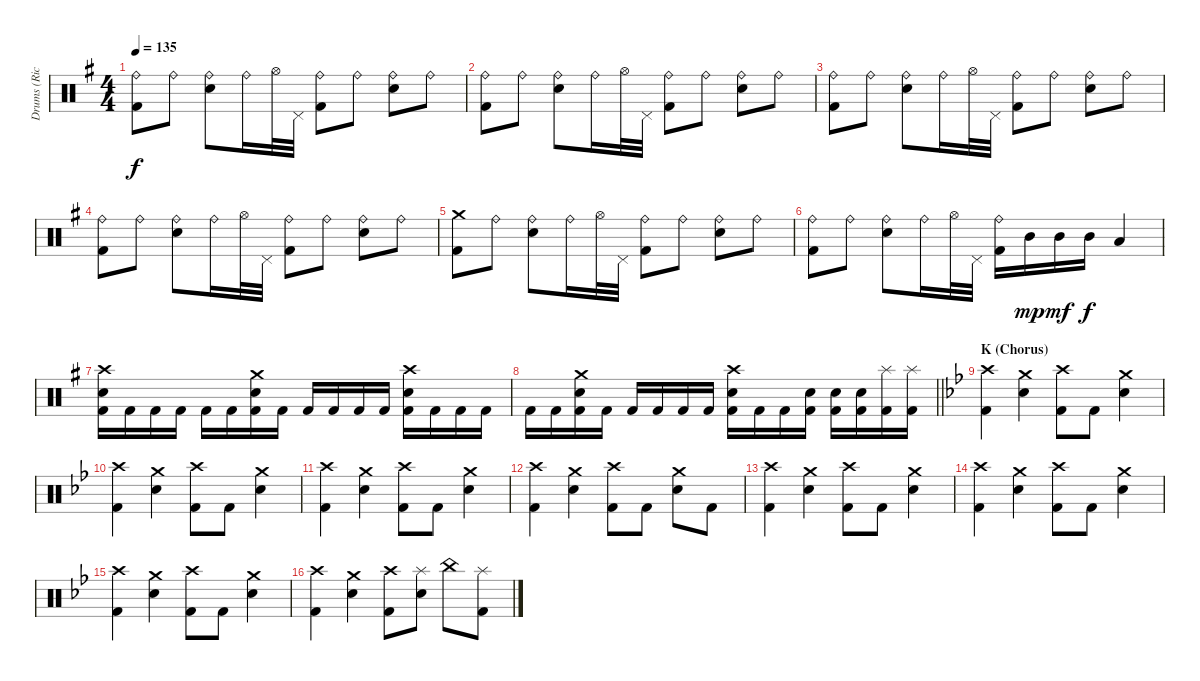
\track ("Drums (Richard Evensand)" "Drums (Ric") {instrument percussion}
\staff {score}
\articulation defaults
\ts (4 4)
\tempo 135
\clef neutral
\ks eminor
("Ride (bell)" "Kick (hit) 2").8{dy f} "Ride (bell)".8 ("Ride (bell)" "Electric Snare (hit)").8 "Ride (bell)".16 "Hi-Hat (open)".32 "Pedal Hi-Hat (hit)".32 ("Ride (bell)" "Kick (hit) 2").8 "Ride (bell)".8 ("Ride (bell)" "Electric Snare (hit)").8 "Ride (bell)".8 |
("Ride (bell)" "Kick (hit) 2").8 "Ride (bell)".8 ("Ride (bell)" "Electric Snare (hit)").8 "Ride (bell)".16 "Hi-Hat (open)".32 "Pedal Hi-Hat (hit)".32 ("Ride (bell)" "Kick (hit) 2").8 "Ride (bell)".8 ("Ride (bell)" "Electric Snare (hit)").8 "Ride (bell)".8 |
("Ride (bell)" "Kick (hit) 2").8 "Ride (bell)".8 ("Ride (bell)" "Electric Snare (hit)").8 "Ride (bell)".16 "Hi-Hat (open)".32 "Pedal Hi-Hat (hit)".32 ("Ride (bell)" "Kick (hit) 2").8 "Ride (bell)".8 ("Ride (bell)" "Electric Snare (hit)").8 "Ride (bell)".8 |
("Ride (bell)" "Kick (hit) 2").8 "Ride (bell)".8 ("Ride (bell)" "Electric Snare (hit)").8 "Ride (bell)".16 "Hi-Hat (open)".32 "Pedal Hi-Hat (hit)".32 ("Ride (bell)" "Kick (hit) 2").8 "Ride (bell)".8 ("Ride (bell)" "Electric Snare (hit)").8 "Ride (bell)".8 |
("Crash medium (hit)" "Kick (hit) 2").8 "Ride (bell)".8 ("Ride (bell)" "Electric Snare (hit)").8 "Ride (bell)".16 "Hi-Hat (open)".32 "Pedal Hi-Hat (hit)".32 ("Ride (bell)" "Kick (hit) 2").8 "Ride (bell)".8 ("Ride (bell)" "Electric Snare (hit)").8 "Ride (bell)".8 |
("Ride (bell)" "Kick (hit) 2").8 "Ride (bell)".8 ("Ride (bell)" "Electric Snare (hit)").8 "Ride (bell)".16 "Hi-Hat (open)".32 "Pedal Hi-Hat (hit)".32 ("Ride (bell)" "Kick (hit) 2").16 "Mid Tom (hit)".16{dy mp} "Mid Tom (hit)".16{dy mf} "Mid Tom (hit)".16{dy f} "Low Tom (hit)".4 |
("Crash high (hit)" "Electric Snare (hit)" "Kick (hit) 2").16 "Kick (hit) 2".16 "Kick (hit) 2".16 "Kick (hit) 2".16 "Kick (hit) 2".16 "Kick (hit) 2".16 ("Crash medium (hit)" "Electric Snare (hit)" "Kick (hit) 2").16 "Kick (hit) 2".16 "Kick (hit) 2".16 "Kick (hit) 2".16 "Kick (hit) 2".16 "Kick (hit) 2".16 ("Crash high (hit)" "Electric Snare (hit)" "Kick (hit) 2").16 "Kick (hit) 2".16 "Kick (hit) 2".16 "Kick (hit) 2".16 |
\barLineRight lightlight "Kick (hit) 2".16 "Kick (hit) 2".16
("Crash medium (hit)" "Electric Snare (hit)" "Kick (hit) 2").16 "Kick (hit) 2".16 "Kick (hit) 2".16 "Kick (hit) 2".16 "Kick (hit) 2".16 "Kick (hit) 2".16 ("Crash high (hit)" "Electric Snare (hit)" "Kick (hit) 2").16 "Kick (hit) 2".16 "Kick (hit) 2".16 ("Electric Snare (hit)" "Kick (hit) 2").16 ("Electric Snare (hit)" "Kick (hit) 2").16 ("Electric Snare (hit)" "Kick (hit) 2").16 ("Splash (hit)" "Kick (hit) 2").16 ("Splash (hit)" "Kick (hit) 2").16 |
\section ("" "K (Chorus)")
\ks gminor
("Crash high (hit)" "Kick (hit) 2").4 ("Crash medium (hit)" "Electric Snare (hit)").4 ("Crash high (hit)" "Kick (hit) 2").8 "Kick (hit) 2".8 ("Crash medium (hit)" "Electric Snare (hit)").4 |
("Crash high (hit)" "Kick (hit) 2").4 ("Crash medium (hit)" "Electric Snare (hit)").4 ("Crash high (hit)" "Kick (hit) 2").8 "Kick (hit) 2".8 ("Crash medium (hit)" "Electric Snare (hit)").4 |
("Crash high (hit)" "Kick (hit) 2").4 ("Crash medium (hit)" "Electric Snare (hit)").4 ("Crash high (hit)" "Kick (hit) 2").8 "Kick (hit) 2".8 ("Crash medium (hit)" "Electric Snare (hit)").4 |
("Crash high (hit)" "Kick (hit) 2").4 ("Crash medium (hit)" "Electric Snare (hit)").4 ("Crash high (hit)" "Kick (hit) 2").8 "Kick (hit) 2".8 ("Crash medium (hit)" "Electric Snare (hit)").8 "Kick (hit) 2".8 |
("Crash high (hit)" "Kick (hit) 2").4 ("Crash medium (hit)" "Electric Snare (hit)").4 ("Crash high (hit)" "Kick (hit) 2").8 "Kick (hit) 2".8 ("Crash medium (hit)" "Electric Snare (hit)").4 |
("Crash high (hit)" "Kick (hit) 2").4 ("Crash medium (hit)" "Electric Snare (hit)").4 ("Crash high (hit)" "Kick (hit) 2").8 "Kick (hit) 2".8 ("Crash medium (hit)" "Electric Snare (hit)").4 |
("Crash high (hit)" "Kick (hit) 2").4 ("Crash medium (hit)" "Electric Snare (hit)").4 ("Crash high (hit)" "Kick (hit) 2").8 "Kick (hit) 2".8 ("Crash medium (hit)" "Electric Snare (hit)").4 |
("Crash high (hit)" "Kick (hit) 2").4 ("Crash medium (hit)" "Electric Snare (hit)").4 ("Crash high (hit)" "Kick (hit) 2").8 ("Splash (hit)" "Electric Snare (hit)").8 "China (hit)".8 ("Splash (hit)" "Kick (hit) 2").8
